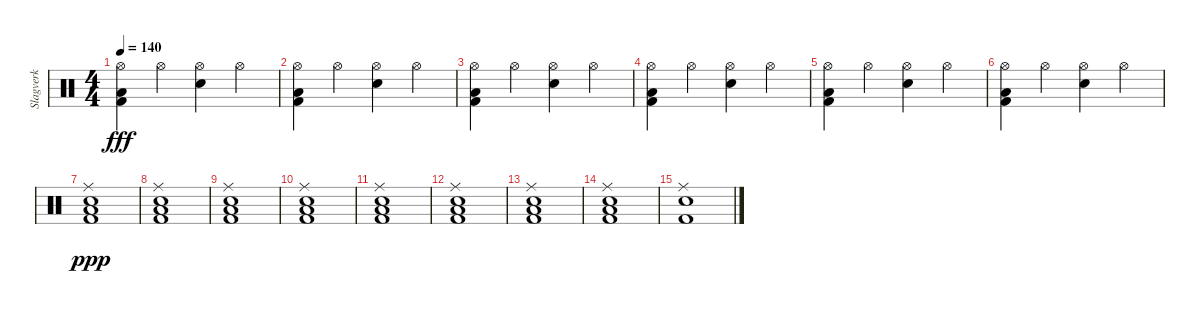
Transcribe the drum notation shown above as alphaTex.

\track ("Slagverk" "Slagverk") {instrument percussion}
\staff {score}
\articulation defaults
\ts (4 4)
\tempo 140
\clef neutral
\ks c
("Hi-Hat (open)" "Low Floor Tom (hit)" "Kick (hit) 2").4{dy fff} "Hi-Hat (open)".4 ("Hi-Hat (open)" "Snare (hit) 2").4 "Hi-Hat (open)".4 |
("Hi-Hat (open)" "Low Floor Tom (hit)" "Kick (hit) 2").4 "Hi-Hat (open)".4 ("Hi-Hat (open)" "Snare (hit) 2").4 "Hi-Hat (open)".4 |
("Hi-Hat (open)" "Low Floor Tom (hit)" "Kick (hit) 2").4 "Hi-Hat (open)".4 ("Hi-Hat (open)" "Snare (hit) 2").4 "Hi-Hat (open)".4 |
("Hi-Hat (open)" "Low Floor Tom (hit)" "Kick (hit) 2").4 "Hi-Hat (open)".4 ("Hi-Hat (open)" "Snare (hit) 2").4 "Hi-Hat (open)".4 |
("Hi-Hat (open)" "Low Floor Tom (hit)" "Kick (hit) 2").4 "Hi-Hat (open)".4 ("Hi-Hat (open)" "Snare (hit) 2").4 "Hi-Hat (open)".4 |
("Hi-Hat (open)" "Low Floor Tom (hit)" "Kick (hit) 2").4 "Hi-Hat (open)".4 ("Hi-Hat (open)" "Snare (hit) 2").4 "Hi-Hat (open)".4 |
("Ride (middle)" "Low Floor Tom (hit)" "Kick (hit) 2" "Snare (hit) 2").1{dy ppp} |
("Ride (middle)" "Low Floor Tom (hit)" "Kick (hit) 2" "Snare (hit) 2").1 |
("Ride (middle)" "Low Floor Tom (hit)" "Kick (hit) 2" "Snare (hit) 2").1 |
("Ride (middle)" "Low Floor Tom (hit)" "Kick (hit) 2" "Snare (hit) 2").1 |
("Ride (middle)" "Low Floor Tom (hit)" "Kick (hit) 2" "Snare (hit) 2").1 |
("Ride (middle)" "Low Floor Tom (hit)" "Kick (hit) 2" "Snare (hit) 2").1 |
("Ride (middle)" "Low Floor Tom (hit)" "Kick (hit) 2" "Snare (hit) 2").1 |
("Ride (middle)" "Low Floor Tom (hit)" "Kick (hit) 2" "Snare (hit) 2").1 |
("Ride (middle)" "Kick (hit) 2" "Snare (hit) 2").1
